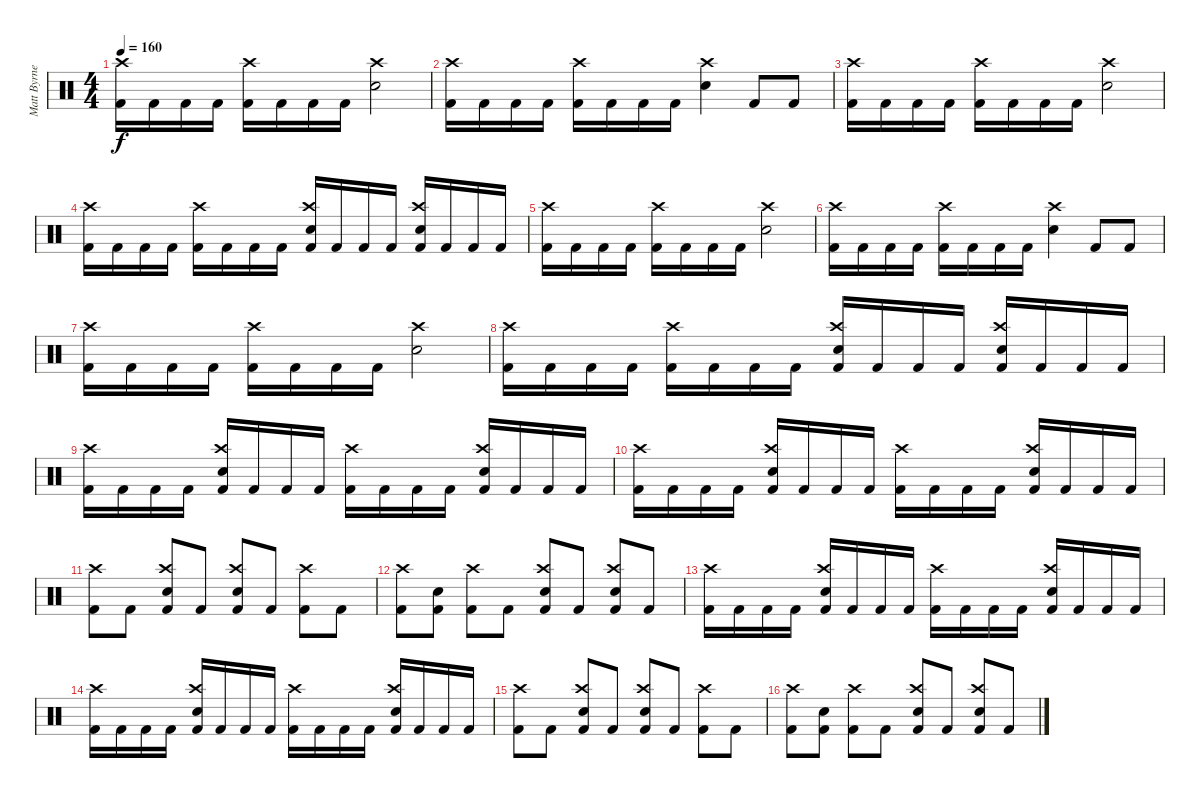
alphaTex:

\track ("Matt Byrne" "Matt Byrne") {instrument percussion}
\staff {score}
\articulation defaults
\ts (4 4)
\tempo 160
\clef neutral
\ks c
("Kick (hit) 2" "Crash high (hit)").16{dy f} "Kick (hit) 2".16 "Kick (hit) 2".16 "Kick (hit) 2".16 ("Kick (hit) 2" "Crash high (hit)").16 "Kick (hit) 2".16 "Kick (hit) 2".16 "Kick (hit) 2".16 ("Crash high (hit)" "Snare (hit) 2").2 |
("Kick (hit) 2" "Crash high (hit)").16 "Kick (hit) 2".16 "Kick (hit) 2".16 "Kick (hit) 2".16 ("Kick (hit) 2" "Crash high (hit)").16 "Kick (hit) 2".16 "Kick (hit) 2".16 "Kick (hit) 2".16 ("Crash high (hit)" "Snare (hit) 2").4 "Kick (hit) 2".8 "Kick (hit) 2".8 |
("Kick (hit) 2" "Crash high (hit)").16 "Kick (hit) 2".16 "Kick (hit) 2".16 "Kick (hit) 2".16 ("Kick (hit) 2" "Crash high (hit)").16 "Kick (hit) 2".16 "Kick (hit) 2".16 "Kick (hit) 2".16 ("Crash high (hit)" "Snare (hit) 2").2 |
("Kick (hit) 2" "Crash high (hit)").16 "Kick (hit) 2".16 "Kick (hit) 2".16 "Kick (hit) 2".16 ("Kick (hit) 2" "Crash high (hit)").16 "Kick (hit) 2".16 "Kick (hit) 2".16 "Kick (hit) 2".16 ("Kick (hit) 2" "Snare (hit) 2" "Crash high (hit)").16 "Kick (hit) 2".16 "Kick (hit) 2".16 "Kick (hit) 2".16 ("Kick (hit) 2" "Snare (hit) 2" "Crash high (hit)").16 "Kick (hit) 2".16 "Kick (hit) 2".16 "Kick (hit) 2".16 |
("Kick (hit) 2" "Crash high (hit)").16 "Kick (hit) 2".16 "Kick (hit) 2".16 "Kick (hit) 2".16 ("Kick (hit) 2" "Crash high (hit)").16 "Kick (hit) 2".16 "Kick (hit) 2".16 "Kick (hit) 2".16 ("Crash high (hit)" "Snare (hit) 2").2 |
("Kick (hit) 2" "Crash high (hit)").16 "Kick (hit) 2".16 "Kick (hit) 2".16 "Kick (hit) 2".16 ("Kick (hit) 2" "Crash high (hit)").16 "Kick (hit) 2".16 "Kick (hit) 2".16 "Kick (hit) 2".16 ("Crash high (hit)" "Snare (hit) 2").4 "Kick (hit) 2".8 "Kick (hit) 2".8 |
("Kick (hit) 2" "Crash high (hit)").16 "Kick (hit) 2".16 "Kick (hit) 2".16 "Kick (hit) 2".16 ("Kick (hit) 2" "Crash high (hit)").16 "Kick (hit) 2".16 "Kick (hit) 2".16 "Kick (hit) 2".16 ("Crash high (hit)" "Snare (hit) 2").2 |
("Kick (hit) 2" "Crash high (hit)").16 "Kick (hit) 2".16 "Kick (hit) 2".16 "Kick (hit) 2".16 ("Kick (hit) 2" "Crash high (hit)").16 "Kick (hit) 2".16 "Kick (hit) 2".16 "Kick (hit) 2".16 ("Kick (hit) 2" "Snare (hit) 2" "Crash high (hit)").16 "Kick (hit) 2".16 "Kick (hit) 2".16 "Kick (hit) 2".16 ("Kick (hit) 2" "Snare (hit) 2" "Crash high (hit)").16 "Kick (hit) 2".16 "Kick (hit) 2".16 "Kick (hit) 2".16 |
\section ("" "")
("Kick (hit) 2" "Crash high (hit)").16 "Kick (hit) 2".16 "Kick (hit) 2".16 "Kick (hit) 2".16 ("Kick (hit) 2" "Snare (hit) 2" "Crash high (hit)").16 "Kick (hit) 2".16 "Kick (hit) 2".16 "Kick (hit) 2".16 ("Kick (hit) 2" "Crash high (hit)").16 "Kick (hit) 2".16 "Kick (hit) 2".16 "Kick (hit) 2".16 ("Kick (hit) 2" "Snare (hit) 2" "Crash high (hit)").16 "Kick (hit) 2".16 "Kick (hit) 2".16 "Kick (hit) 2".16 |
("Kick (hit) 2" "Crash high (hit)").16 "Kick (hit) 2".16 "Kick (hit) 2".16 "Kick (hit) 2".16 ("Kick (hit) 2" "Snare (hit) 2" "Crash high (hit)").16 "Kick (hit) 2".16 "Kick (hit) 2".16 "Kick (hit) 2".16 ("Kick (hit) 2" "Crash high (hit)").16 "Kick (hit) 2".16 "Kick (hit) 2".16 "Kick (hit) 2".16 ("Kick (hit) 2" "Snare (hit) 2" "Crash high (hit)").16 "Kick (hit) 2".16 "Kick (hit) 2".16 "Kick (hit) 2".16 |
("Kick (hit) 2" "Crash high (hit)").8 "Kick (hit) 2".8 ("Kick (hit) 2" "Snare (hit) 2" "Crash high (hit)").8 "Kick (hit) 2".8 ("Kick (hit) 2" "Snare (hit) 2" "Crash high (hit)").8 "Kick (hit) 2".8 ("Kick (hit) 2" "Crash high (hit)").8 "Kick (hit) 2".8 |
("Kick (hit) 2" "Crash high (hit)").8 ("Kick (hit) 2" "Snare (hit) 2").8 ("Kick (hit) 2" "Crash high (hit)").8 "Kick (hit) 2".8 ("Kick (hit) 2" "Snare (hit) 2" "Crash high (hit)").8 "Kick (hit) 2".8 ("Kick (hit) 2" "Snare (hit) 2" "Crash high (hit)").8 "Kick (hit) 2".8 |
("Kick (hit) 2" "Crash high (hit)").16 "Kick (hit) 2".16 "Kick (hit) 2".16 "Kick (hit) 2".16 ("Kick (hit) 2" "Snare (hit) 2" "Crash high (hit)").16 "Kick (hit) 2".16 "Kick (hit) 2".16 "Kick (hit) 2".16 ("Kick (hit) 2" "Crash high (hit)").16 "Kick (hit) 2".16 "Kick (hit) 2".16 "Kick (hit) 2".16 ("Kick (hit) 2" "Snare (hit) 2" "Crash high (hit)").16 "Kick (hit) 2".16 "Kick (hit) 2".16 "Kick (hit) 2".16 |
("Kick (hit) 2" "Crash high (hit)").16 "Kick (hit) 2".16 "Kick (hit) 2".16 "Kick (hit) 2".16 ("Kick (hit) 2" "Snare (hit) 2" "Crash high (hit)").16 "Kick (hit) 2".16 "Kick (hit) 2".16 "Kick (hit) 2".16 ("Kick (hit) 2" "Crash high (hit)").16 "Kick (hit) 2".16 "Kick (hit) 2".16 "Kick (hit) 2".16 ("Kick (hit) 2" "Snare (hit) 2" "Crash high (hit)").16 "Kick (hit) 2".16 "Kick (hit) 2".16 "Kick (hit) 2".16 |
("Kick (hit) 2" "Crash high (hit)").8 "Kick (hit) 2".8 ("Kick (hit) 2" "Snare (hit) 2" "Crash high (hit)").8 "Kick (hit) 2".8 ("Kick (hit) 2" "Snare (hit) 2" "Crash high (hit)").8 "Kick (hit) 2".8 ("Kick (hit) 2" "Crash high (hit)").8 "Kick (hit) 2".8 |
("Kick (hit) 2" "Crash high (hit)").8 ("Kick (hit) 2" "Snare (hit) 2").8 ("Kick (hit) 2" "Crash high (hit)").8 "Kick (hit) 2".8 ("Kick (hit) 2" "Snare (hit) 2" "Crash high (hit)").8 "Kick (hit) 2".8 ("Kick (hit) 2" "Snare (hit) 2" "Crash high (hit)").8 "Kick (hit) 2".8
